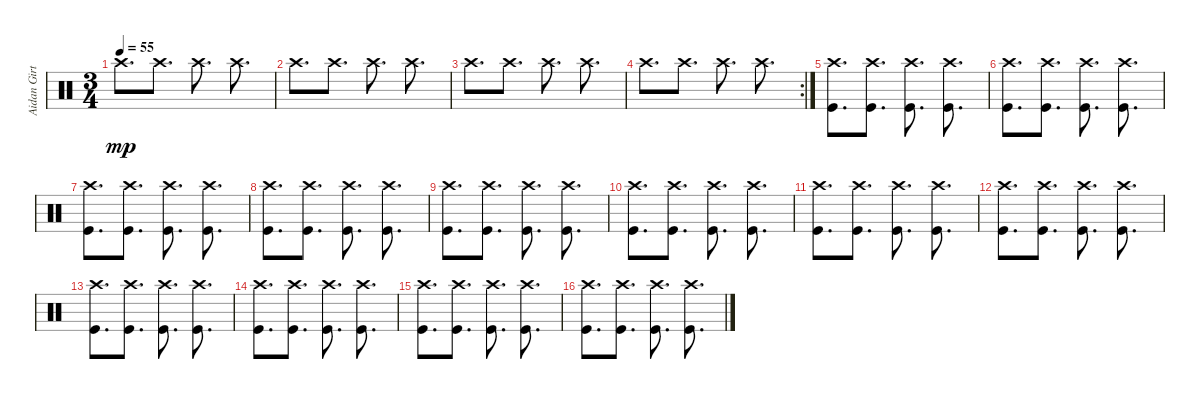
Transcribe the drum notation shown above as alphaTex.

\track ("Aidan Girt" "Aidan Girt") {instrument percussion}
\staff {score}
\articulation defaults
\ts (3 4)
\tempo 55
\clef neutral
\ks c "Crash high (hit)".8{d dy mp} "Crash high (hit)".8{d} "Crash high (hit)".8{d} "Crash high (hit)".8{d}
|
"Crash high (hit)".8{d} "Crash high (hit)".8{d} "Crash high (hit)".8{d} "Crash high (hit)".8{d} |
"Crash high (hit)".8{d} "Crash high (hit)".8{d} "Crash high (hit)".8{d} "Crash high (hit)".8{d} |
\rc 2 "Crash high (hit)".8{d} "Crash high (hit)".8{d} "Crash high (hit)".8{d} "Crash high (hit)".8{d}
|
("Crash high (hit)" "Kick (hit)").8{d} ("Crash high (hit)" "Kick (hit)").8{d} ("Crash high (hit)" "Kick (hit)").8{d} ("Crash high (hit)" "Kick (hit)").8{d} |
("Crash high (hit)" "Kick (hit)").8{d} ("Crash high (hit)" "Kick (hit)").8{d} ("Crash high (hit)" "Kick (hit)").8{d} ("Crash high (hit)" "Kick (hit)").8{d} |
("Crash high (hit)" "Kick (hit)").8{d} ("Crash high (hit)" "Kick (hit)").8{d} ("Crash high (hit)" "Kick (hit)").8{d} ("Crash high (hit)" "Kick (hit)").8{d} |
("Crash high (hit)" "Kick (hit)").8{d} ("Crash high (hit)" "Kick (hit)").8{d} ("Crash high (hit)" "Kick (hit)").8{d} ("Crash high (hit)" "Kick (hit)").8{d} |
("Crash high (hit)" "Kick (hit)").8{d} ("Crash high (hit)" "Kick (hit)").8{d} ("Crash high (hit)" "Kick (hit)").8{d} ("Crash high (hit)" "Kick (hit)").8{d} |
("Crash high (hit)" "Kick (hit)").8{d} ("Crash high (hit)" "Kick (hit)").8{d} ("Crash high (hit)" "Kick (hit)").8{d} ("Crash high (hit)" "Kick (hit)").8{d} |
("Crash high (hit)" "Kick (hit)").8{d} ("Crash high (hit)" "Kick (hit)").8{d} ("Crash high (hit)" "Kick (hit)").8{d} ("Crash high (hit)" "Kick (hit)").8{d} |
("Crash high (hit)" "Kick (hit)").8{d} ("Crash high (hit)" "Kick (hit)").8{d} ("Crash high (hit)" "Kick (hit)").8{d} ("Crash high (hit)" "Kick (hit)").8{d} |
("Crash high (hit)" "Kick (hit)").8{d} ("Crash high (hit)" "Kick (hit)").8{d} ("Crash high (hit)" "Kick (hit)").8{d} ("Crash high (hit)" "Kick (hit)").8{d} |
("Crash high (hit)" "Kick (hit)").8{d} ("Crash high (hit)" "Kick (hit)").8{d} ("Crash high (hit)" "Kick (hit)").8{d} ("Crash high (hit)" "Kick (hit)").8{d} |
("Crash high (hit)" "Kick (hit)").8{d} ("Crash high (hit)" "Kick (hit)").8{d} ("Crash high (hit)" "Kick (hit)").8{d} ("Crash high (hit)" "Kick (hit)").8{d} |
("Crash high (hit)" "Kick (hit)").8{d} ("Crash high (hit)" "Kick (hit)").8{d} ("Crash high (hit)" "Kick (hit)").8{d} ("Crash high (hit)" "Kick (hit)").8{d}
